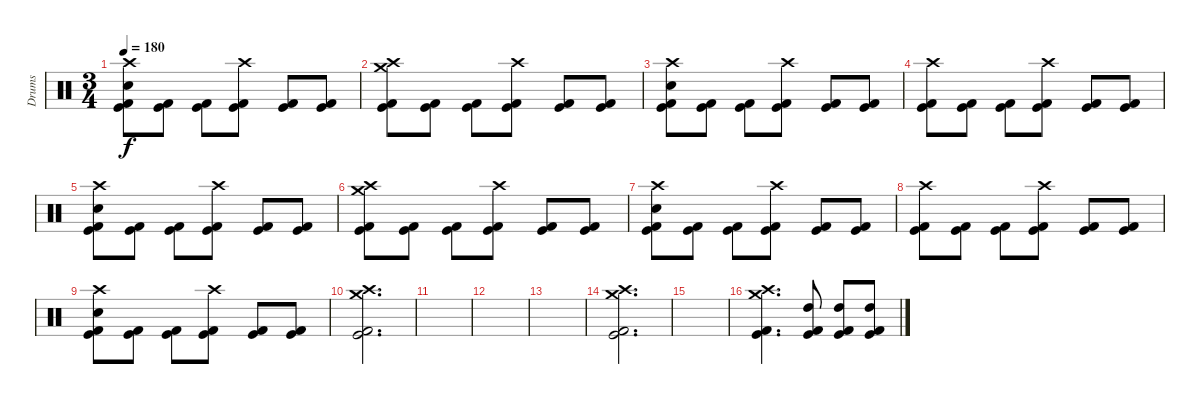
\track ("Drums" "Drums") {instrument percussion}
\staff {score}
\articulation defaults
\ts (3 4)
\tempo 180
\clef neutral
\ks c
("Crash high (hit)" "Snare (hit) 2" "Kick (hit)" "Kick (hit) 2").8{dy f} ("Kick (hit)" "Kick (hit) 2").8 ("Kick (hit)" "Kick (hit) 2").8 ("Crash high (hit)" "Kick (hit)" "Kick (hit) 2").8 ("Kick (hit)" "Kick (hit) 2").8 ("Kick (hit)" "Kick (hit) 2").8 |
("Crash medium (hit)" "Crash high (hit)" "Kick (hit)" "Kick (hit) 2").8 ("Kick (hit)" "Kick (hit) 2").8 ("Kick (hit)" "Kick (hit) 2").8 ("Crash high (hit)" "Kick (hit)" "Kick (hit) 2").8 ("Kick (hit)" "Kick (hit) 2").8 ("Kick (hit)" "Kick (hit) 2").8 |
("Crash high (hit)" "Snare (hit) 2" "Kick (hit)" "Kick (hit) 2").8 ("Kick (hit)" "Kick (hit) 2").8 ("Kick (hit)" "Kick (hit) 2").8 ("Crash high (hit)" "Kick (hit)" "Kick (hit) 2").8 ("Kick (hit)" "Kick (hit) 2").8 ("Kick (hit)" "Kick (hit) 2").8 |
("Crash high (hit)" "Kick (hit)" "Kick (hit) 2").8 ("Kick (hit)" "Kick (hit) 2").8 ("Kick (hit)" "Kick (hit) 2").8 ("Crash high (hit)" "Kick (hit)" "Kick (hit) 2").8 ("Kick (hit)" "Kick (hit) 2").8 ("Kick (hit)" "Kick (hit) 2").8 |
("Crash high (hit)" "Snare (hit) 2" "Kick (hit)" "Kick (hit) 2").8 ("Kick (hit)" "Kick (hit) 2").8 ("Kick (hit)" "Kick (hit) 2").8 ("Crash high (hit)" "Kick (hit)" "Kick (hit) 2").8 ("Kick (hit)" "Kick (hit) 2").8 ("Kick (hit)" "Kick (hit) 2").8 |
("Crash medium (hit)" "Crash high (hit)" "Kick (hit)" "Kick (hit) 2").8 ("Kick (hit)" "Kick (hit) 2").8 ("Kick (hit)" "Kick (hit) 2").8 ("Crash high (hit)" "Kick (hit)" "Kick (hit) 2").8 ("Kick (hit)" "Kick (hit) 2").8 ("Kick (hit)" "Kick (hit) 2").8 |
("Crash high (hit)" "Snare (hit) 2" "Kick (hit)" "Kick (hit) 2").8 ("Kick (hit)" "Kick (hit) 2").8 ("Kick (hit)" "Kick (hit) 2").8 ("Crash high (hit)" "Kick (hit)" "Kick (hit) 2").8 ("Kick (hit)" "Kick (hit) 2").8 ("Kick (hit)" "Kick (hit) 2").8 |
("Crash high (hit)" "Kick (hit)" "Kick (hit) 2").8 ("Kick (hit)" "Kick (hit) 2").8 ("Kick (hit)" "Kick (hit) 2").8 ("Crash high (hit)" "Kick (hit)" "Kick (hit) 2").8 ("Kick (hit)" "Kick (hit) 2").8 ("Kick (hit)" "Kick (hit) 2").8 |
("Crash high (hit)" "Snare (hit) 2" "Kick (hit)" "Kick (hit) 2").8 ("Kick (hit)" "Kick (hit) 2").8 ("Kick (hit)" "Kick (hit) 2").8 ("Crash high (hit)" "Kick (hit)" "Kick (hit) 2").8 ("Kick (hit)" "Kick (hit) 2").8 ("Kick (hit)" "Kick (hit) 2").8 |
("Crash medium (hit)" "Crash high (hit)" "Kick (hit)" "Kick (hit) 2").2{d} |
|
|
|
("Crash medium (hit)" "Crash high (hit)" "Kick (hit)" "Kick (hit) 2").2{d} |
|
("Crash medium (hit)" "Crash high (hit)" "Kick (hit)" "Kick (hit) 2").4{d} ("High Tom (hit)" "Kick (hit)" "Kick (hit) 2").8 ("High Tom (hit)" "Kick (hit)" "Kick (hit) 2").8 ("High Tom (hit)" "Kick (hit)" "Kick (hit) 2").8
